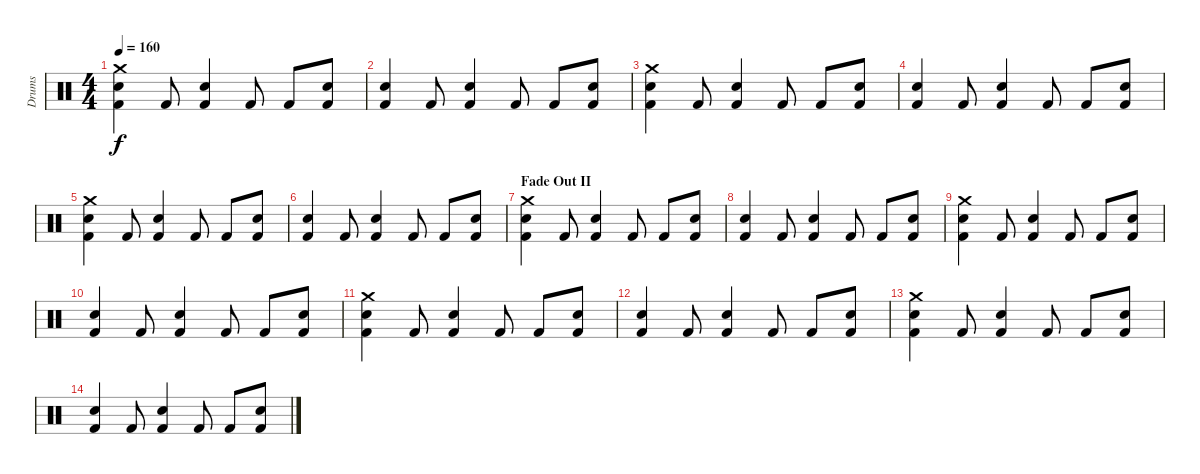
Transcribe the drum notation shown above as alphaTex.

\track ("Drums" "Drums") {instrument percussion}
\staff {score}
\articulation defaults
\ts (4 4)
\tempo 160
\clef neutral
\ks c
("Kick (hit) 2" "Snare (hit) 2" "Crash medium (hit)").4{dy f} "Kick (hit) 2".8 ("Kick (hit) 2" "Snare (hit) 2").4 "Kick (hit) 2".8 "Kick (hit) 2".8 ("Kick (hit) 2" "Snare (hit) 2").8 |
("Kick (hit) 2" "Snare (hit) 2").4 "Kick (hit) 2".8 ("Kick (hit) 2" "Snare (hit) 2").4 "Kick (hit) 2".8 "Kick (hit) 2".8 ("Kick (hit) 2" "Snare (hit) 2").8 |
("Kick (hit) 2" "Snare (hit) 2" "Crash medium (hit)").4 "Kick (hit) 2".8 ("Kick (hit) 2" "Snare (hit) 2").4 "Kick (hit) 2".8 "Kick (hit) 2".8 ("Kick (hit) 2" "Snare (hit) 2").8 |
("Kick (hit) 2" "Snare (hit) 2").4 "Kick (hit) 2".8 ("Kick (hit) 2" "Snare (hit) 2").4 "Kick (hit) 2".8 "Kick (hit) 2".8 ("Kick (hit) 2" "Snare (hit) 2").8 |
("Kick (hit) 2" "Snare (hit) 2" "Crash medium (hit)").4 "Kick (hit) 2".8 ("Kick (hit) 2" "Snare (hit) 2").4 "Kick (hit) 2".8 "Kick (hit) 2".8 ("Kick (hit) 2" "Snare (hit) 2").8 |
("Kick (hit) 2" "Snare (hit) 2").4 "Kick (hit) 2".8 ("Kick (hit) 2" "Snare (hit) 2").4 "Kick (hit) 2".8 "Kick (hit) 2".8 ("Kick (hit) 2" "Snare (hit) 2").8 |
\section ("" "Fade Out II")
("Kick (hit) 2" "Snare (hit) 2" "Crash medium (hit)").4{volume 10} "Kick (hit) 2".8 ("Kick (hit) 2" "Snare (hit) 2").4 "Kick (hit) 2".8 "Kick (hit) 2".8 ("Kick (hit) 2" "Snare (hit) 2").8 |
("Kick (hit) 2" "Snare (hit) 2").4 "Kick (hit) 2".8 ("Kick (hit) 2" "Snare (hit) 2").4 "Kick (hit) 2".8 "Kick (hit) 2".8 ("Kick (hit) 2" "Snare (hit) 2").8 |
("Kick (hit) 2" "Snare (hit) 2" "Crash medium (hit)").4{volume 6} "Kick (hit) 2".8 ("Kick (hit) 2" "Snare (hit) 2").4 "Kick (hit) 2".8 "Kick (hit) 2".8 ("Kick (hit) 2" "Snare (hit) 2").8 |
("Kick (hit) 2" "Snare (hit) 2").4{volume 3} "Kick (hit) 2".8 ("Kick (hit) 2" "Snare (hit) 2").4 "Kick (hit) 2".8 "Kick (hit) 2".8 ("Kick (hit) 2" "Snare (hit) 2").8 |
("Kick (hit) 2" "Snare (hit) 2" "Crash medium (hit)").4 "Kick (hit) 2".8 ("Kick (hit) 2" "Snare (hit) 2").4 "Kick (hit) 2".8 "Kick (hit) 2".8 ("Kick (hit) 2" "Snare (hit) 2").8 |
("Kick (hit) 2" "Snare (hit) 2").4{volume 0} "Kick (hit) 2".8 ("Kick (hit) 2" "Snare (hit) 2").4 "Kick (hit) 2".8 "Kick (hit) 2".8 ("Kick (hit) 2" "Snare (hit) 2").8 |
("Kick (hit) 2" "Snare (hit) 2" "Crash medium (hit)").4 "Kick (hit) 2".8 ("Kick (hit) 2" "Snare (hit) 2").4 "Kick (hit) 2".8 "Kick (hit) 2".8 ("Kick (hit) 2" "Snare (hit) 2").8 |
("Kick (hit) 2" "Snare (hit) 2").4 "Kick (hit) 2".8 ("Kick (hit) 2" "Snare (hit) 2").4 "Kick (hit) 2".8 "Kick (hit) 2".8 ("Kick (hit) 2" "Snare (hit) 2").8
